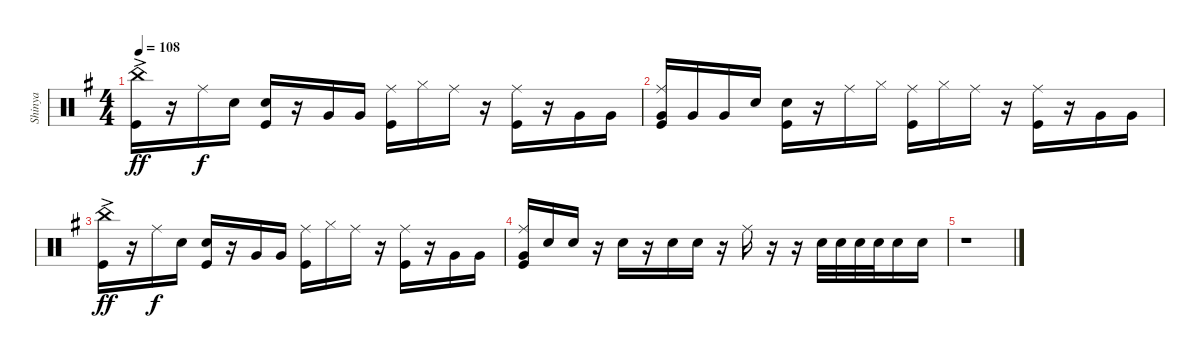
\track ("Shinya" "Shinya") {instrument percussion}
\staff {score}
\articulation defaults
\ts (4 4)
\tempo 108
\clef neutral
\ks g
("China (hit)"{ac} "Kick (hit)").16{dy ff} r.16 "Ride (middle)".16{dy f} "Electric Snare (hit)".16 ("Electric Snare (hit)" "Kick (hit)").16 r.16 "Very Low Tom (hit)".16 "Very Low Tom (hit)".16 ("Ride (middle)" "Kick (hit)").16 "Hi-Hat (closed)".16 "Ride (middle)".16 r.16 ("Ride (middle)" "Kick (hit)").16 r.16 "Very Low Tom (hit)".16 "Very Low Tom (hit)".16 |
("Ride (middle)" "Very Low Tom (hit)" "Kick (hit)").16 "Very Low Tom (hit)".16 "Very Low Tom (hit)".16 "Electric Snare (hit)".16 ("Electric Snare (hit)" "Kick (hit)").16 r.16 "Ride (middle)".16 "Hi-Hat (closed)".16 ("Ride (middle)" "Kick (hit)").16 "Hi-Hat (closed)".16 "Ride (middle)".16 r.16 ("Ride (middle)" "Kick (hit)").16 r.16 "Very Low Tom (hit)".16 "Very Low Tom (hit)".16 |
("China (hit)"{ac} "Kick (hit)").16{dy ff} r.16 "Ride (middle)".16{dy f} "Electric Snare (hit)".16 ("Electric Snare (hit)" "Kick (hit)").16 r.16 "Very Low Tom (hit)".16 "Very Low Tom (hit)".16 ("Ride (middle)" "Kick (hit)").16 "Hi-Hat (closed)".16 "Ride (middle)".16 r.16 ("Ride (middle)" "Kick (hit)").16 r.16 "Very Low Tom (hit)".16 "Very Low Tom (hit)".16 |
("Ride (middle)" "Very Low Tom (hit)" "Kick (hit)").16 "Electric Snare (hit)".16 "Electric Snare (hit)".16 r.16 "Electric Snare (hit)".16 r.16 "Electric Snare (hit)".16 "Electric Snare (hit)".16 r.16 "Ride (middle)".16 r.16 r.16 "Electric Snare (hit)".32 "Electric Snare (hit)".32 "Electric Snare (hit)".32 "Electric Snare (hit)".32 "Electric Snare (hit)".16 "Electric Snare (hit)".16 |
r.1
